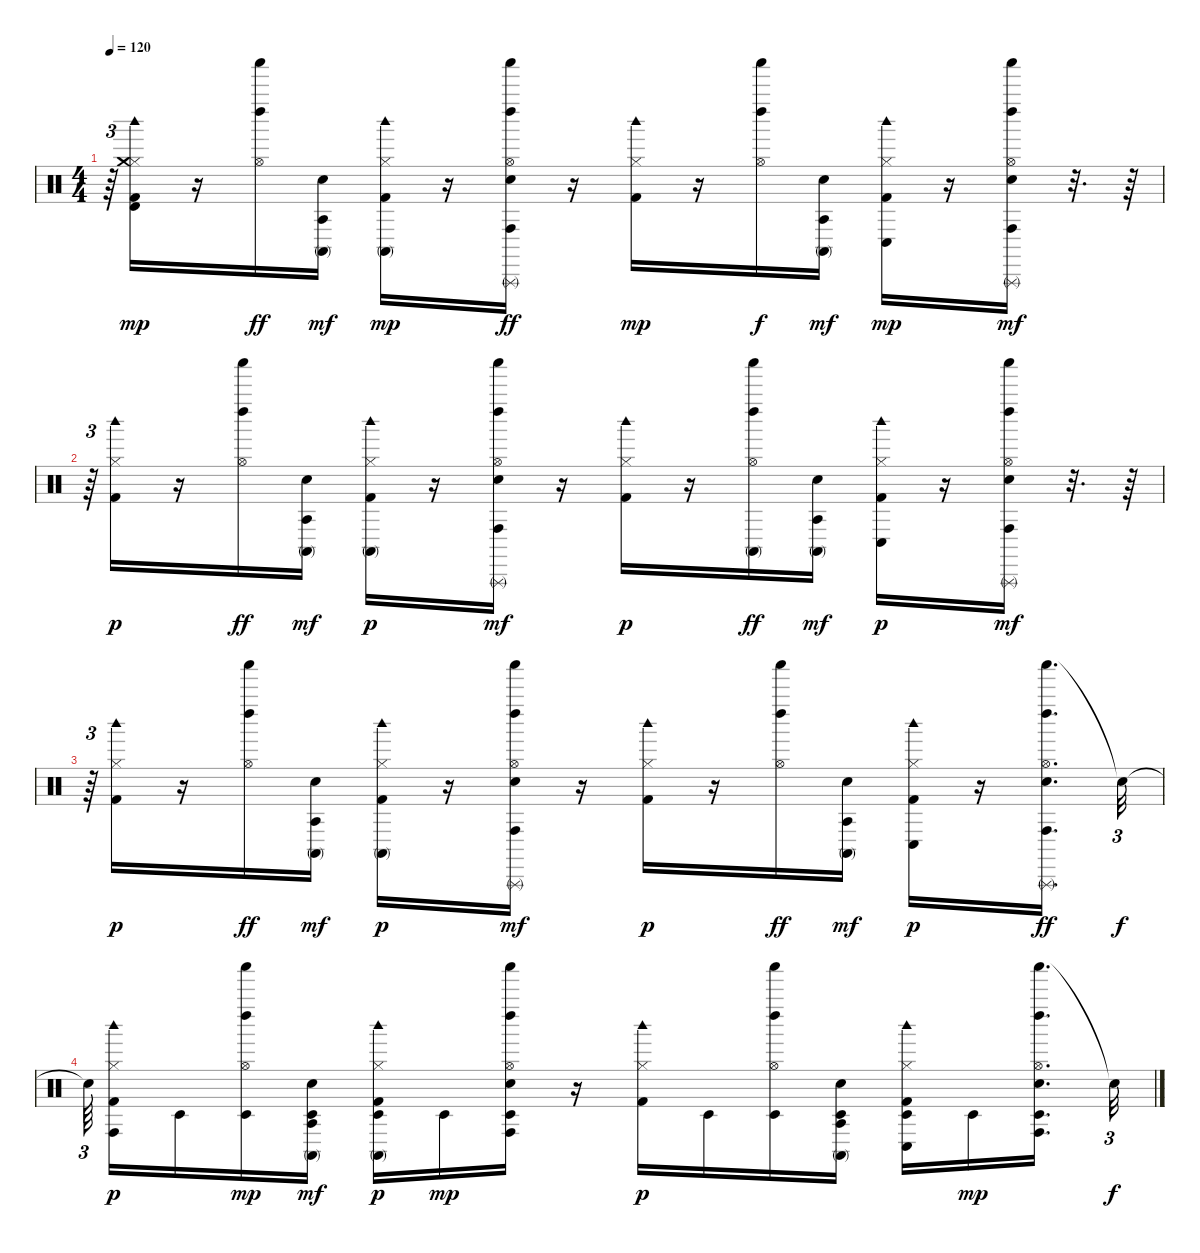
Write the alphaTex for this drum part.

\track "" {instrument percussion}
\staff {score}
\articulation defaults
\ts (4 4)
\tempo 120
\clef neutral
\ks c
r.64{tu (3 2) dy f} ("Kick (hit) 2" "Hi-Hat (closed)" "Crash medium (hit)" "Timbale high (hit)" "Woodblock high (hit)").16{dy mp} r.16 ("Shaker (hit)" "Left Maraca (hit)" "Hi-Hat (open)").16{dy ff} ("Electric Snare (hit)" "Conga high (mute)" "Agogo tow (hit)").16{dy mf} ("Kick (hit) 2" "Conga high (mute)" "Hi-Hat (closed)" "Woodblock high (hit)").16{dy mp} r.16 ("Shaker (hit)" "Left Maraca (hit)" "Electric Snare (hit)" "Conga high (hit)" "Hi-Hat (open)" "Triangle (rnute)").16{dy ff} r.16 ("Kick (hit) 2" "Hi-Hat (closed)" "Woodblock high (hit)").16{dy mp} r.16 ("Shaker (hit)" "Left Maraca (hit)" "Hi-Hat (open)").16{dy f} ("Electric Snare (hit)" "Conga high (mute)" "Agogo tow (hit)").16{dy mf} ("Kick (hit) 2" "Conga low (hit)" "Hi-Hat (closed)" "Woodblock high (hit)").16{dy mp} r.16 ("Shaker (hit)" "Left Maraca (hit)" "Electric Snare (hit)" "Conga high (hit)" "Hi-Hat (open)" "Triangle (rnute)").16{dy mf} r.32{d} r.64 |
r.64{tu (3 2)} ("Kick (hit) 2" "Hi-Hat (closed)" "Woodblock high (hit)").16{dy p} r.16 ("Shaker (hit)" "Left Maraca (hit)" "Hi-Hat (open)").16{dy ff} ("Electric Snare (hit)" "Conga high (mute)" "Agogo tow (hit)").16{dy mf} ("Kick (hit) 2" "Conga high (mute)" "Hi-Hat (closed)" "Woodblock high (hit)").16{dy p} r.16 ("Shaker (hit)" "Left Maraca (hit)" "Electric Snare (hit)" "Conga high (hit)" "Hi-Hat (open)" "Triangle (rnute)").16{dy mf} r.16 ("Kick (hit) 2" "Hi-Hat (closed)" "Woodblock high (hit)").16{dy p} r.16 ("Shaker (hit)" "Left Maraca (hit)" "Conga high (mute)" "Hi-Hat (open)").16{dy ff} ("Electric Snare (hit)" "Conga high (mute)" "Agogo tow (hit)").16{dy mf} ("Kick (hit) 2" "Conga low (hit)" "Hi-Hat (closed)" "Woodblock high (hit)").16{dy p} r.16 ("Shaker (hit)" "Left Maraca (hit)" "Electric Snare (hit)" "Conga high (hit)" "Hi-Hat (open)" "Triangle (rnute)").16{dy mf} r.32{d} r.64 |
r.64{tu (3 2)} ("Kick (hit) 2" "Hi-Hat (closed)" "Woodblock high (hit)").16{dy p} r.16 ("Shaker (hit)" "Left Maraca (hit)" "Hi-Hat (open)").16{dy ff} ("Electric Snare (hit)" "Conga high (mute)" "Agogo tow (hit)").16{dy mf} ("Kick (hit) 2" "Conga high (mute)" "Hi-Hat (closed)" "Woodblock high (hit)").16{dy p} r.16 ("Shaker (hit)" "Left Maraca (hit)" "Electric Snare (hit)" "Conga high (hit)" "Hi-Hat (open)" "Triangle (rnute)").16{dy mf} r.16 ("Kick (hit) 2" "Hi-Hat (closed)" "Woodblock high (hit)").16{dy p} r.16 ("Shaker (hit)" "Left Maraca (hit)" "Hi-Hat (open)").16{dy ff} ("Electric Snare (hit)" "Conga high (mute)" "Agogo tow (hit)").16{dy mf} ("Kick (hit) 2" "Conga low (hit)" "Hi-Hat (closed)" "Woodblock high (hit)").16{dy p} r.16 ("Shaker (hit)" "Left Maraca (hit)" "Electric Snare (hit)" "Conga high (hit)" "Hi-Hat (open)" "Triangle (rnute)").16{d dy ff} "Snare (hit)"{t}.32{tu (3 2) dy f} |
"Snare (hit)"{t}.64{tu (3 2) beam splitsecondary} ("Kick (hit) 2" "Conga high (hit)" "Hi-Hat (closed)" "Woodblock high (hit)").16{dy p} "Timbale low (hit)".16 ("Shaker (hit)" "Left Maraca (hit)" "Hi-Hat (open)" "Timbale low (hit)").16{dy mp} ("Electric Snare (hit)" "Conga high (mute)" "Timbale low (hit)" "Agogo tow (hit)").16{dy mf} ("Kick (hit) 2" "Conga high (mute)" "Hi-Hat (closed)" "Timbale low (hit)" "Woodblock high (hit)").16{dy p} "Timbale low (hit)".16{dy mp} ("Shaker (hit)" "Left Maraca (hit)" "Electric Snare (hit)" "Conga high (hit)" "Hi-Hat (open)" "Timbale low (hit)").16 r.16 ("Kick (hit) 2" "Hi-Hat (closed)" "Woodblock high (hit)").16{dy p} "Timbale low (hit)".16 ("Shaker (hit)" "Left Maraca (hit)" "Hi-Hat (open)" "Timbale low (hit)").16 ("Electric Snare (hit)" "Conga high (mute)" "Timbale low (hit)" "Agogo tow (hit)").16 ("Kick (hit) 2" "Conga low (hit)" "Hi-Hat (closed)" "Timbale low (hit)" "Woodblock high (hit)").16 "Timbale low (hit)".16{dy mp} ("Shaker (hit)" "Left Maraca (hit)" "Electric Snare (hit)" "Conga high (hit)" "Hi-Hat (open)" "Timbale low (hit)").16{d beam splitsecondary} "Snare (hit)"{t}.32{tu (3 2) dy f}
